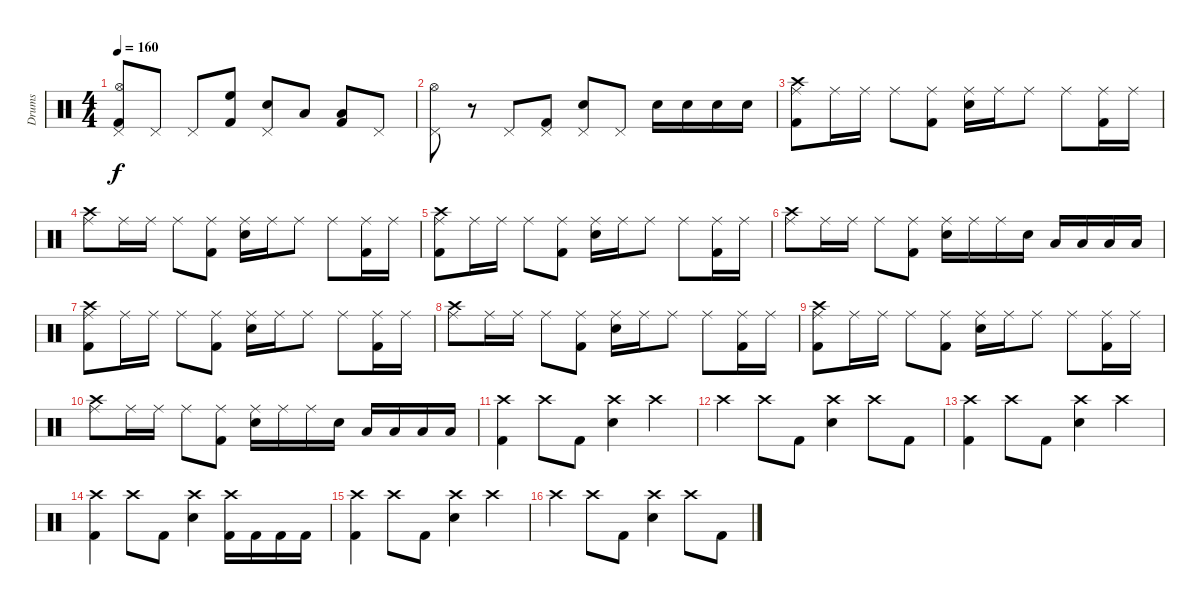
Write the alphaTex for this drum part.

\track ("Drums" "Drums") {instrument percussion}
\staff {score}
\articulation defaults
\ts (4 4)
\tempo 160
\clef neutral
\ks c
("Pedal Hi-Hat (hit)" "Hi-Hat (open)" "Kick (hit) 2").8{dy f} "Pedal Hi-Hat (hit)".8 "Pedal Hi-Hat (hit)".8 ("High Floor Tom (hit)" "Kick (hit) 2").8 ("Pedal Hi-Hat (hit)" "Electric Snare (hit)").8 "Low Tom (hit)".8 ("Low Tom (hit)" "Kick (hit) 2").8 "Pedal Hi-Hat (hit)".8 |
("Pedal Hi-Hat (hit)" "Hi-Hat (open)").8 r.8 "Pedal Hi-Hat (hit)".8 ("Pedal Hi-Hat (hit)" "Kick (hit) 2").8 ("Pedal Hi-Hat (hit)" "Electric Snare (hit)").8 "Pedal Hi-Hat (hit)".8 "Electric Snare (hit)".16 "Electric Snare (hit)".16 "Electric Snare (hit)".16 "Electric Snare (hit)".16 |
\section ("" " ")
("Ride (middle)" "Crash high (hit)" "Kick (hit) 2").8 "Ride (middle)".16 "Ride (middle)".16 "Ride (middle)".8 ("Ride (middle)" "Kick (hit) 2").8 ("Ride (middle)" "Electric Snare (hit)").16 "Ride (middle)".16 "Ride (middle)".8 "Ride (middle)".8 ("Ride (middle)" "Kick (hit) 2").16 "Ride (middle)".16 |
("Ride (middle)" "Crash high (hit)").8 "Ride (middle)".16 "Ride (middle)".16 "Ride (middle)".8 ("Ride (middle)" "Kick (hit) 2").8 ("Ride (middle)" "Electric Snare (hit)").16 "Ride (middle)".16 "Ride (middle)".8 "Ride (middle)".8 ("Ride (middle)" "Kick (hit) 2").16 "Ride (middle)".16 |
("Ride (middle)" "Crash high (hit)" "Kick (hit) 2").8 "Ride (middle)".16 "Ride (middle)".16 "Ride (middle)".8 ("Ride (middle)" "Kick (hit) 2").8 ("Ride (middle)" "Electric Snare (hit)").16 "Ride (middle)".16 "Ride (middle)".8 "Ride (middle)".8 ("Ride (middle)" "Kick (hit) 2").16 "Ride (middle)".16 |
("Ride (middle)" "Crash high (hit)").8 "Ride (middle)".16 "Ride (middle)".16 "Ride (middle)".8 ("Ride (middle)" "Kick (hit) 2").8 ("Ride (middle)" "Electric Snare (hit)").16 "Ride (middle)".16 "Ride (middle)".16 "Electric Snare (hit)".16 "Low Tom (hit)".16 "Low Tom (hit)".16 "Low Tom (hit)".16 "Low Tom (hit)".16 |
("Ride (middle)" "Crash high (hit)" "Kick (hit) 2").8 "Ride (middle)".16 "Ride (middle)".16 "Ride (middle)".8 ("Ride (middle)" "Kick (hit) 2").8 ("Ride (middle)" "Electric Snare (hit)").16 "Ride (middle)".16 "Ride (middle)".8 "Ride (middle)".8 ("Ride (middle)" "Kick (hit) 2").16 "Ride (middle)".16 |
("Ride (middle)" "Crash high (hit)").8 "Ride (middle)".16 "Ride (middle)".16 "Ride (middle)".8 ("Ride (middle)" "Kick (hit) 2").8 ("Ride (middle)" "Electric Snare (hit)").16 "Ride (middle)".16 "Ride (middle)".8 "Ride (middle)".8 ("Ride (middle)" "Kick (hit) 2").16 "Ride (middle)".16 |
("Ride (middle)" "Crash high (hit)" "Kick (hit) 2").8 "Ride (middle)".16 "Ride (middle)".16 "Ride (middle)".8 ("Ride (middle)" "Kick (hit) 2").8 ("Ride (middle)" "Electric Snare (hit)").16 "Ride (middle)".16 "Ride (middle)".8 "Ride (middle)".8 ("Ride (middle)" "Kick (hit) 2").16 "Ride (middle)".16 |
("Ride (middle)" "Crash high (hit)").8 "Ride (middle)".16 "Ride (middle)".16 "Ride (middle)".8 ("Ride (middle)" "Kick (hit) 2").8 ("Ride (middle)" "Electric Snare (hit)").16 "Ride (middle)".16 "Ride (middle)".16 "Electric Snare (hit)".16 "Low Tom (hit)".16 "Low Tom (hit)".16 "Low Tom (hit)".16 "Low Tom (hit)".16 |
("Crash high (hit)" "Kick (hit) 2").4 "Crash high (hit)".8 "Kick (hit) 2".8 ("Crash high (hit)" "Electric Snare (hit)").4 "Crash high (hit)".4 |
"Crash high (hit)".4 "Crash high (hit)".8 "Kick (hit) 2".8 ("Crash high (hit)" "Electric Snare (hit)").4 "Crash high (hit)".8 "Kick (hit) 2".8 |
("Crash high (hit)" "Kick (hit) 2").4 "Crash high (hit)".8 "Kick (hit) 2".8 ("Crash high (hit)" "Electric Snare (hit)").4 "Crash high (hit)".4 |
("Crash high (hit)" "Kick (hit) 2").4 "Crash high (hit)".8 "Kick (hit) 2".8 ("Crash high (hit)" "Electric Snare (hit)").4 ("Crash high (hit)" "Kick (hit) 2").16 "Kick (hit) 2".16 "Kick (hit) 2".16 "Kick (hit) 2".16 |
("Crash high (hit)" "Kick (hit) 2").4 "Crash high (hit)".8 "Kick (hit) 2".8 ("Crash high (hit)" "Electric Snare (hit)").4 "Crash high (hit)".4 |
"Crash high (hit)".4 "Crash high (hit)".8 "Kick (hit) 2".8 ("Crash high (hit)" "Electric Snare (hit)").4 "Crash high (hit)".8 "Kick (hit) 2".8
